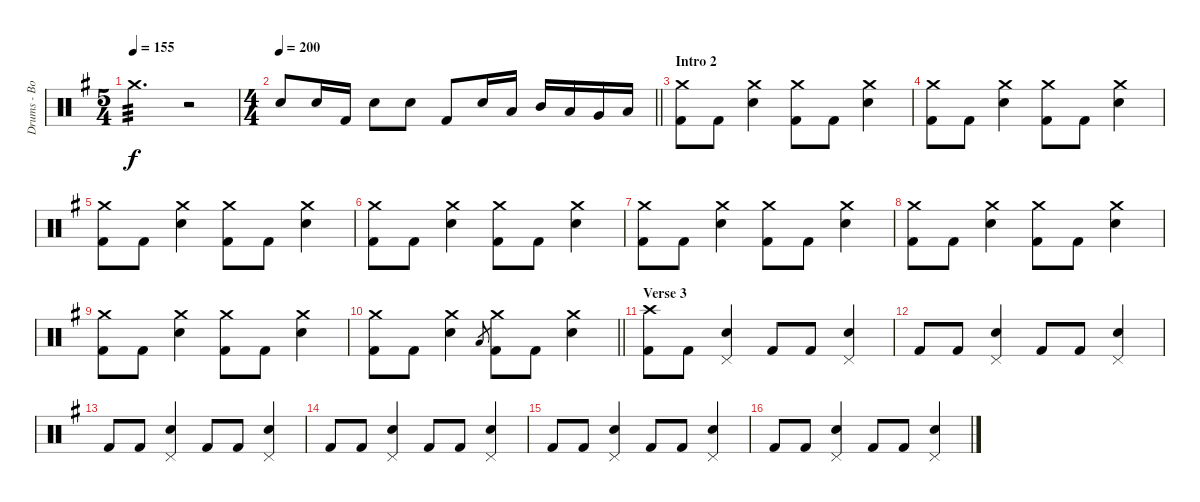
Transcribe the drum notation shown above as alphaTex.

\track ("Drums - Bob Bryar" "Drums - Bo") {instrument percussion}
\staff {score}
\articulation defaults
\ts (5 4)
\tempo 155
\clef neutral
\ks eminor "Crash medium (hit)".2{d tp 3 dy f}
r.2 |
\ts (4 4)
\tempo 200
\barLineRight lightlight "Electric Snare (hit)".8 "Electric Snare (hit)".16 "Kick (hit) 2".16 "Electric Snare (hit)".8 "Electric Snare (hit)".8 "Kick (hit) 2".8 "Electric Snare (hit)".16 "Low Tom (hit)".16 "Mid Tom (hit)".16 "Low Tom (hit)".16 "Very Low Tom (hit)".16 "Low Floor Tom (hit)".16
|
\section ("" "Intro 2")
("Kick (hit) 2" "Crash medium (hit)").8 "Kick (hit) 2".8 ("Electric Snare (hit)" "Crash medium (hit)").4 ("Kick (hit) 2" "Crash medium (hit)").8 "Kick (hit) 2".8 ("Electric Snare (hit)" "Crash medium (hit)").4 |
("Kick (hit) 2" "Crash medium (hit)").8 "Kick (hit) 2".8 ("Electric Snare (hit)" "Crash medium (hit)").4 ("Kick (hit) 2" "Crash medium (hit)").8 "Kick (hit) 2".8 ("Electric Snare (hit)" "Crash medium (hit)").4 |
("Kick (hit) 2" "Crash medium (hit)").8 "Kick (hit) 2".8 ("Electric Snare (hit)" "Crash medium (hit)").4 ("Kick (hit) 2" "Crash medium (hit)").8 "Kick (hit) 2".8 ("Electric Snare (hit)" "Crash medium (hit)").4 |
("Kick (hit) 2" "Crash medium (hit)").8 "Kick (hit) 2".8 ("Electric Snare (hit)" "Crash medium (hit)").4 ("Kick (hit) 2" "Crash medium (hit)").8 "Kick (hit) 2".8 ("Electric Snare (hit)" "Crash medium (hit)").4 |
("Kick (hit) 2" "Crash medium (hit)").8 "Kick (hit) 2".8 ("Electric Snare (hit)" "Crash medium (hit)").4 ("Kick (hit) 2" "Crash medium (hit)").8 "Kick (hit) 2".8 ("Electric Snare (hit)" "Crash medium (hit)").4 |
("Kick (hit) 2" "Crash medium (hit)").8 "Kick (hit) 2".8 ("Electric Snare (hit)" "Crash medium (hit)").4 ("Kick (hit) 2" "Crash medium (hit)").8 "Kick (hit) 2".8 ("Electric Snare (hit)" "Crash medium (hit)").4 |
("Kick (hit) 2" "Crash medium (hit)").8 "Kick (hit) 2".8 ("Electric Snare (hit)" "Crash medium (hit)").4 ("Kick (hit) 2" "Crash medium (hit)").8 "Kick (hit) 2".8 ("Electric Snare (hit)" "Crash medium (hit)").4 |
\barLineRight lightlight
("Kick (hit) 2" "Crash medium (hit)").8 "Kick (hit) 2".8 ("Electric Snare (hit)" "Crash medium (hit)").4 "Low Floor Tom (hit)".8{gr} ("Kick (hit) 2" "Crash medium (hit)").8 "Kick (hit) 2".8 ("Electric Snare (hit)" "Crash medium (hit)").4 |
\section ("" "Verse 3")
("Kick (hit) 2" "Crash high (hit)").8 "Kick (hit) 2".8 ("Electric Snare (hit)" "Pedal Hi-Hat (hit)").4 "Kick (hit) 2".8 "Kick (hit) 2".8 ("Electric Snare (hit)" "Pedal Hi-Hat (hit)").4 |
"Kick (hit) 2".8 "Kick (hit) 2".8 ("Electric Snare (hit)" "Pedal Hi-Hat (hit)").4 "Kick (hit) 2".8 "Kick (hit) 2".8 ("Electric Snare (hit)" "Pedal Hi-Hat (hit)").4 |
"Kick (hit) 2".8 "Kick (hit) 2".8 ("Electric Snare (hit)" "Pedal Hi-Hat (hit)").4 "Kick (hit) 2".8 "Kick (hit) 2".8 ("Electric Snare (hit)" "Pedal Hi-Hat (hit)").4 |
"Kick (hit) 2".8 "Kick (hit) 2".8 ("Electric Snare (hit)" "Pedal Hi-Hat (hit)").4 "Kick (hit) 2".8 "Kick (hit) 2".8 ("Electric Snare (hit)" "Pedal Hi-Hat (hit)").4 |
"Kick (hit) 2".8 "Kick (hit) 2".8 ("Electric Snare (hit)" "Pedal Hi-Hat (hit)").4 "Kick (hit) 2".8 "Kick (hit) 2".8 ("Electric Snare (hit)" "Pedal Hi-Hat (hit)").4 |
"Kick (hit) 2".8 "Kick (hit) 2".8 ("Electric Snare (hit)" "Pedal Hi-Hat (hit)").4 "Kick (hit) 2".8 "Kick (hit) 2".8 ("Electric Snare (hit)" "Pedal Hi-Hat (hit)").4
